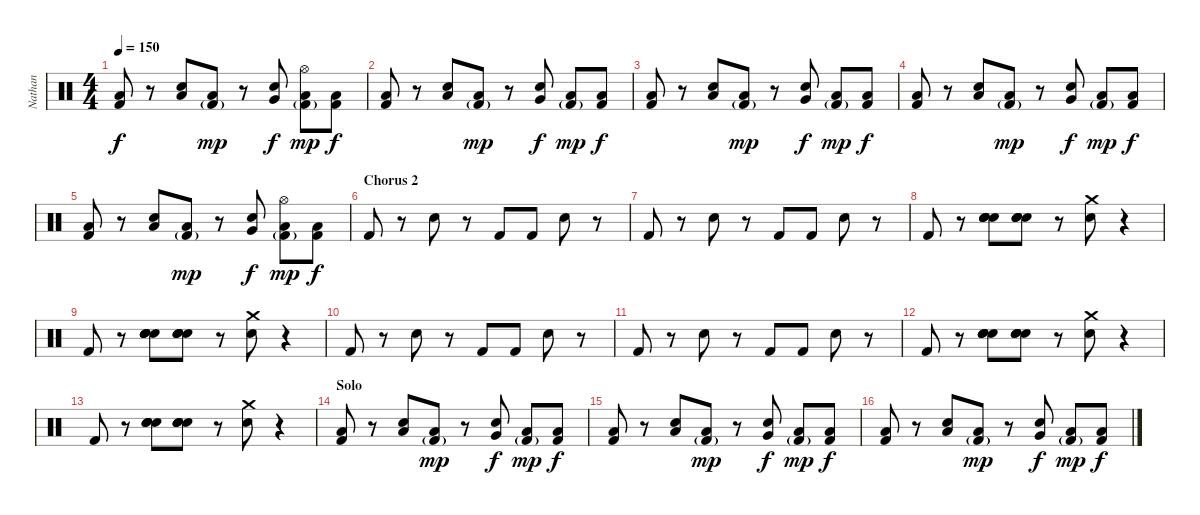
\track ("Nathan" "Nathan") {instrument percussion}
\staff {score}
\articulation defaults
\ts (4 4)
\tempo 150
\clef neutral
\ks c
("Low Floor Tom (hit)" "Kick (hit) 2").8{dy f} r.8 ("Electric Snare (hit)" "Low Tom (hit)").8 ("Low Floor Tom (hit)" "Kick (hit) 2"{g}).8{dy mp} r.8 ("Electric Snare (hit)" "Very Low Tom (hit)").8{dy f} ("Hi-Hat (open)" "Low Floor Tom (hit)" "Kick (hit) 2"{g}).8{dy mp} ("Low Floor Tom (hit)" "Kick (hit) 2").8{dy f} |
("Low Floor Tom (hit)" "Kick (hit) 2").8 r.8 ("Electric Snare (hit)" "Low Tom (hit)").8 ("Low Floor Tom (hit)" "Kick (hit) 2"{g}).8{dy mp} r.8 ("Electric Snare (hit)" "Very Low Tom (hit)").8{dy f} ("Low Floor Tom (hit)" "Kick (hit) 2"{g}).8{dy mp} ("Low Floor Tom (hit)" "Kick (hit) 2").8{dy f} |
("Low Floor Tom (hit)" "Kick (hit) 2").8 r.8 ("Electric Snare (hit)" "Low Tom (hit)").8 ("Low Floor Tom (hit)" "Kick (hit) 2"{g}).8{dy mp} r.8 ("Electric Snare (hit)" "Very Low Tom (hit)").8{dy f} ("Low Floor Tom (hit)" "Kick (hit) 2"{g}).8{dy mp} ("Low Floor Tom (hit)" "Kick (hit) 2").8{dy f} |
("Low Floor Tom (hit)" "Kick (hit) 2").8 r.8 ("Electric Snare (hit)" "Low Tom (hit)").8 ("Low Floor Tom (hit)" "Kick (hit) 2"{g}).8{dy mp} r.8 ("Electric Snare (hit)" "Very Low Tom (hit)").8{dy f} ("Low Floor Tom (hit)" "Kick (hit) 2"{g}).8{dy mp} ("Low Floor Tom (hit)" "Kick (hit) 2").8{dy f} |
("Low Floor Tom (hit)" "Kick (hit) 2").8 r.8 ("Electric Snare (hit)" "Low Tom (hit)").8 ("Low Floor Tom (hit)" "Kick (hit) 2"{g}).8{dy mp} r.8 ("Electric Snare (hit)" "Very Low Tom (hit)").8{dy f} ("Hi-Hat (open)" "Low Floor Tom (hit)" "Kick (hit) 2"{g}).8{dy mp} ("Low Floor Tom (hit)" "Kick (hit) 2").8{dy f} |
\section ("" "Chorus 2")
"Kick (hit) 2".8 r.8 "Electric Snare (hit)".8 r.8 "Kick (hit) 2".8 "Kick (hit) 2".8 "Electric Snare (hit)".8 r.8 |
"Kick (hit) 2".8 r.8 "Electric Snare (hit)".8 r.8 "Kick (hit) 2".8 "Kick (hit) 2".8 "Electric Snare (hit)".8 r.8 |
"Kick (hit) 2".8 r.8 ("Hand Clap (hit)" "Hand Clap (hit)" "Hand Clap (hit)" "Hand Clap (hit)").8 ("Hand Clap (hit)" "Hand Clap (hit)" "Hand Clap (hit)" "Hand Clap (hit)").8 r.8 ("Crash medium (hit)" "Electric Snare (hit)").8 r.4 |
"Kick (hit) 2".8 r.8 ("Hand Clap (hit)" "Hand Clap (hit)" "Hand Clap (hit)" "Hand Clap (hit)").8 ("Hand Clap (hit)" "Hand Clap (hit)" "Hand Clap (hit)" "Hand Clap (hit)").8 r.8 ("Crash medium (hit)" "Electric Snare (hit)").8 r.4 |
"Kick (hit) 2".8 r.8 "Electric Snare (hit)".8 r.8 "Kick (hit) 2".8 "Kick (hit) 2".8 "Electric Snare (hit)".8 r.8 |
"Kick (hit) 2".8 r.8 "Electric Snare (hit)".8 r.8 "Kick (hit) 2".8 "Kick (hit) 2".8 "Electric Snare (hit)".8 r.8 |
"Kick (hit) 2".8 r.8 ("Hand Clap (hit)" "Hand Clap (hit)" "Hand Clap (hit)" "Hand Clap (hit)").8 ("Hand Clap (hit)" "Hand Clap (hit)" "Hand Clap (hit)" "Hand Clap (hit)").8 r.8 ("Crash medium (hit)" "Electric Snare (hit)").8 r.4 |
"Kick (hit) 2".8 r.8 ("Hand Clap (hit)" "Hand Clap (hit)" "Hand Clap (hit)" "Hand Clap (hit)").8 ("Hand Clap (hit)" "Hand Clap (hit)" "Hand Clap (hit)" "Hand Clap (hit)").8 r.8 ("Crash medium (hit)" "Electric Snare (hit)").8 r.4 |
\section ("" "Solo")
("Low Floor Tom (hit)" "Kick (hit) 2").8 r.8 ("Electric Snare (hit)" "Low Tom (hit)").8 ("Low Floor Tom (hit)" "Kick (hit) 2"{g}).8{dy mp} r.8 ("Electric Snare (hit)" "Very Low Tom (hit)").8{dy f} ("Low Floor Tom (hit)" "Kick (hit) 2"{g}).8{dy mp} ("Low Floor Tom (hit)" "Kick (hit) 2").8{dy f} |
("Low Floor Tom (hit)" "Kick (hit) 2").8 r.8 ("Electric Snare (hit)" "Low Tom (hit)").8 ("Low Floor Tom (hit)" "Kick (hit) 2"{g}).8{dy mp} r.8 ("Electric Snare (hit)" "Very Low Tom (hit)").8{dy f} ("Low Floor Tom (hit)" "Kick (hit) 2"{g}).8{dy mp} ("Low Floor Tom (hit)" "Kick (hit) 2").8{dy f} |
("Low Floor Tom (hit)" "Kick (hit) 2").8 r.8 ("Electric Snare (hit)" "Low Tom (hit)").8 ("Low Floor Tom (hit)" "Kick (hit) 2"{g}).8{dy mp} r.8 ("Electric Snare (hit)" "Very Low Tom (hit)").8{dy f} ("Low Floor Tom (hit)" "Kick (hit) 2"{g}).8{dy mp} ("Low Floor Tom (hit)" "Kick (hit) 2").8{dy f}
